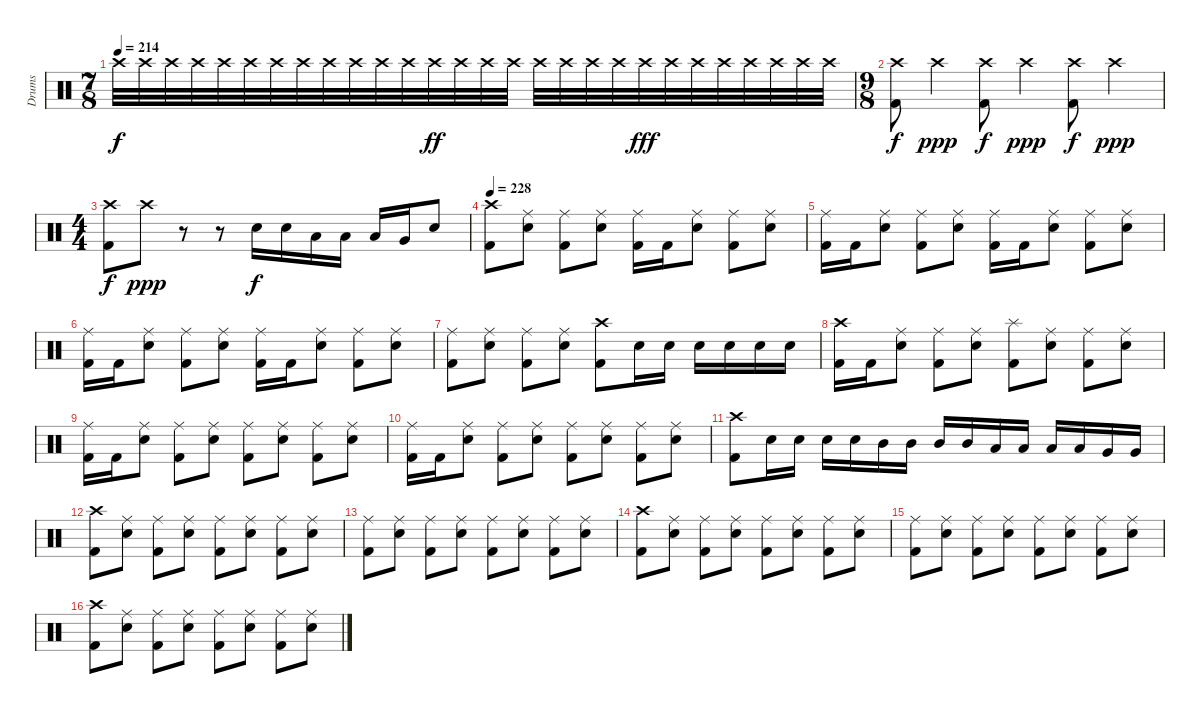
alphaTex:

\track ("Drums" "Drums") {instrument percussion}
\staff {score}
\articulation defaults
\ts (7 8)
\tempo 214
\clef neutral
\ks c "Crash high (hit)".32{dy f} "Crash high (hit)".32 "Crash high (hit)".32 "Crash high (hit)".32 "Crash high (hit)".32 "Crash high (hit)".32 "Crash high (hit)".32 "Crash high (hit)".32 "Crash high (hit)".32 "Crash high (hit)".32 "Crash high (hit)".32 "Crash high (hit)".32 "Crash high (hit)".32{dy ff} "Crash high (hit)".32 "Crash high (hit)".32 "Crash high (hit)".32 "Crash high (hit)".32 "Crash high (hit)".32 "Crash high (hit)".32 "Crash high (hit)".32 "Crash high (hit)".32{dy fff} "Crash high (hit)".32 "Crash high (hit)".32 "Crash high (hit)".32 "Crash high (hit)".32 "Crash high (hit)".32 "Crash high (hit)".32 "Crash high (hit)".32
|
\ts (9 8)
("Crash high (hit)" "Kick (hit) 2").8{dy f} "Crash high (hit)".4{dy ppp} ("Crash high (hit)" "Kick (hit) 2").8{dy f} "Crash high (hit)".4{dy ppp} ("Crash high (hit)" "Kick (hit) 2").8{dy f} "Crash high (hit)".4{dy ppp} |
\ts (4 4)
("Crash high (hit)" "Kick (hit) 2").8{dy f} "Crash high (hit)".8{dy ppp} r.8 r.8 "Electric Snare (hit)".16{dy f} "Electric Snare (hit)".16 "Low Tom (hit)".16 "Low Tom (hit)".16 "Low Tom (hit)".16 "Very Low Tom (hit)".16 "Electric Snare (hit)".8 |
\tempo 228
("Crash high (hit)" "Kick (hit) 2").8 ("Electric Snare (hit)" "Ride (middle)").8 ("Kick (hit) 2" "Ride (middle)").8 ("Electric Snare (hit)" "Ride (middle)").8 ("Kick (hit) 2" "Ride (middle)").16 "Kick (hit) 2".16 ("Electric Snare (hit)" "Ride (middle)").8 ("Kick (hit) 2" "Ride (middle)").8 ("Electric Snare (hit)" "Ride (middle)").8 |
("Ride (middle)" "Kick (hit) 2").16 "Kick (hit) 2".16 ("Electric Snare (hit)" "Ride (middle)").8 ("Kick (hit) 2" "Ride (middle)").8 ("Electric Snare (hit)" "Ride (middle)").8 ("Kick (hit) 2" "Ride (middle)").16 "Kick (hit) 2".16 ("Electric Snare (hit)" "Ride (middle)").8 ("Kick (hit) 2" "Ride (middle)").8 ("Electric Snare (hit)" "Ride (middle)").8 |
("Ride (middle)" "Kick (hit) 2").16 "Kick (hit) 2".16 ("Electric Snare (hit)" "Ride (middle)").8 ("Kick (hit) 2" "Ride (middle)").8 ("Electric Snare (hit)" "Ride (middle)").8 ("Kick (hit) 2" "Ride (middle)").16 "Kick (hit) 2".16 ("Electric Snare (hit)" "Ride (middle)").8 ("Kick (hit) 2" "Ride (middle)").8 ("Electric Snare (hit)" "Ride (middle)").8 |
("Ride (middle)" "Kick (hit) 2").8 ("Electric Snare (hit)" "Ride (middle)").8 ("Kick (hit) 2" "Ride (middle)").8 ("Electric Snare (hit)" "Ride (middle)").8 ("Kick (hit) 2" "Crash high (hit)").8 "Electric Snare (hit)".16 "Electric Snare (hit)".16 "Electric Snare (hit)".16 "Electric Snare (hit)".16 "Electric Snare (hit)".16 "Electric Snare (hit)".16 |
("Crash high (hit)" "Kick (hit) 2").16 "Kick (hit) 2".16 ("Electric Snare (hit)" "Ride (middle)").8 ("Kick (hit) 2" "Ride (middle)").8 ("Electric Snare (hit)" "Ride (middle)").8 ("Kick (hit) 2" "Splash (hit)").8 ("Electric Snare (hit)" "Ride (middle)").8 ("Kick (hit) 2" "Ride (middle)").8 ("Electric Snare (hit)" "Ride (middle)").8 |
("Ride (middle)" "Kick (hit) 2").16 "Kick (hit) 2".16 ("Electric Snare (hit)" "Ride (middle)").8 ("Kick (hit) 2" "Ride (middle)").8 ("Electric Snare (hit)" "Ride (middle)").8 ("Kick (hit) 2" "Ride (middle)").8 ("Electric Snare (hit)" "Ride (middle)").8 ("Kick (hit) 2" "Ride (middle)").8 ("Electric Snare (hit)" "Ride (middle)").8 |
("Ride (middle)" "Kick (hit) 2").16 "Kick (hit) 2".16 ("Electric Snare (hit)" "Ride (middle)").8 ("Kick (hit) 2" "Ride (middle)").8 ("Electric Snare (hit)" "Ride (middle)").8 ("Kick (hit) 2" "Ride (middle)").8 ("Electric Snare (hit)" "Ride (middle)").8 ("Kick (hit) 2" "Ride (middle)").8 ("Electric Snare (hit)" "Ride (middle)").8 |
("Crash high (hit)" "Kick (hit) 2").8 "Electric Snare (hit)".16 "Electric Snare (hit)".16 "Electric Snare (hit)".16 "Electric Snare (hit)".16 "Mid Tom (hit)".16 "Mid Tom (hit)".16 "Mid Tom (hit)".16 "Mid Tom (hit)".16 "Low Tom (hit)".16 "Low Tom (hit)".16 "Low Tom (hit)".16 "Low Tom (hit)".16 "Very Low Tom (hit)".16 "Very Low Tom (hit)".16 |
("Crash high (hit)" "Kick (hit) 2").8 ("Electric Snare (hit)" "Ride (middle)").8 ("Kick (hit) 2" "Ride (middle)").8 ("Electric Snare (hit)" "Ride (middle)").8 ("Kick (hit) 2" "Ride (middle)").8 ("Electric Snare (hit)" "Ride (middle)").8 ("Kick (hit) 2" "Ride (middle)").8 ("Electric Snare (hit)" "Ride (middle)").8 |
("Ride (middle)" "Kick (hit) 2").8 ("Electric Snare (hit)" "Ride (middle)").8 ("Kick (hit) 2" "Ride (middle)").8 ("Electric Snare (hit)" "Ride (middle)").8 ("Kick (hit) 2" "Ride (middle)").8 ("Electric Snare (hit)" "Ride (middle)").8 ("Kick (hit) 2" "Ride (middle)").8 ("Electric Snare (hit)" "Ride (middle)").8 |
("Crash high (hit)" "Kick (hit) 2").8 ("Electric Snare (hit)" "Ride (middle)").8 ("Kick (hit) 2" "Ride (middle)").8 ("Electric Snare (hit)" "Ride (middle)").8 ("Kick (hit) 2" "Ride (middle)").8 ("Electric Snare (hit)" "Ride (middle)").8 ("Kick (hit) 2" "Ride (middle)").8 ("Electric Snare (hit)" "Ride (middle)").8 |
("Ride (middle)" "Kick (hit) 2").8 ("Electric Snare (hit)" "Ride (middle)").8 ("Kick (hit) 2" "Ride (middle)").8 ("Electric Snare (hit)" "Ride (middle)").8 ("Kick (hit) 2" "Ride (middle)").8 ("Electric Snare (hit)" "Ride (middle)").8 ("Kick (hit) 2" "Ride (middle)").8 ("Electric Snare (hit)" "Ride (middle)").8 |
("Crash high (hit)" "Kick (hit) 2").8 ("Electric Snare (hit)" "Ride (middle)").8 ("Kick (hit) 2" "Ride (middle)").8 ("Electric Snare (hit)" "Ride (middle)").8 ("Kick (hit) 2" "Ride (middle)").8 ("Electric Snare (hit)" "Ride (middle)").8 ("Kick (hit) 2" "Ride (middle)").8 ("Electric Snare (hit)" "Ride (middle)").8
